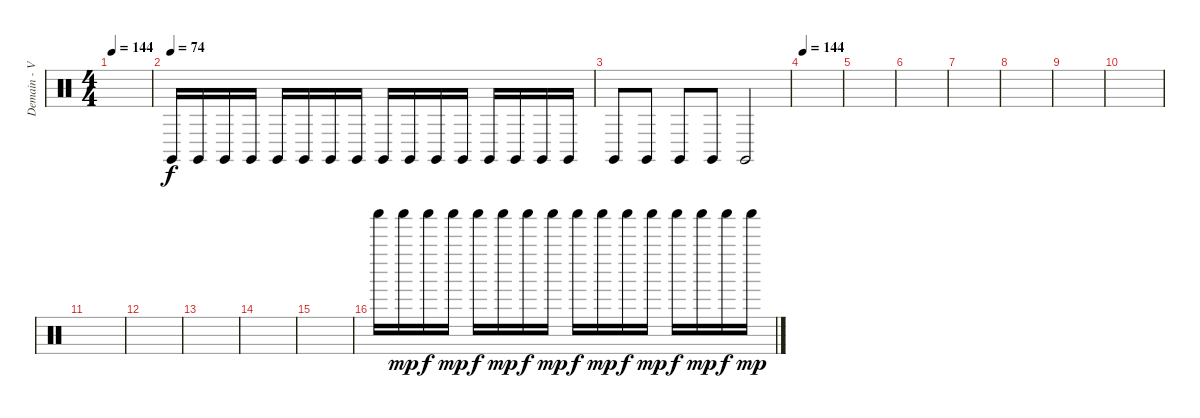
\track ("Demain - Various Perc." "Demain - V") {instrument percussion}
\staff {score}
\articulation defaults
\ts (4 4)
\tempo 144
\clef neutral
\ks c
|
\tempo (74)
"Claves (hit)".16 "Claves (hit)".16 "Claves (hit)".16 "Claves (hit)".16 "Claves (hit)".16 "Claves (hit)".16 "Claves (hit)".16 "Claves (hit)".16 "Claves (hit)".16 "Claves (hit)".16 "Claves (hit)".16 "Claves (hit)".16 "Claves (hit)".16 "Claves (hit)".16 "Claves (hit)".16 "Claves (hit)".16 |
"Claves (hit)".8 "Claves (hit)".8 "Claves (hit)".8 "Claves (hit)".8 "Claves (hit)".2 |
\tempo 144
|
|
|
|
|
|
|
|
|
|
|
|
"Shaker (hit)".16 "Shaker (hit)".16{dy mp} "Shaker (hit)".16{dy f} "Shaker (hit)".16{dy mp} "Shaker (hit)".16{dy f} "Shaker (hit)".16{dy mp} "Shaker (hit)".16{dy f} "Shaker (hit)".16{dy mp} "Shaker (hit)".16{dy f} "Shaker (hit)".16{dy mp} "Shaker (hit)".16{dy f} "Shaker (hit)".16{dy mp} "Shaker (hit)".16{dy f} "Shaker (hit)".16{dy mp} "Shaker (hit)".16{dy f} "Shaker (hit)".16{dy mp}
